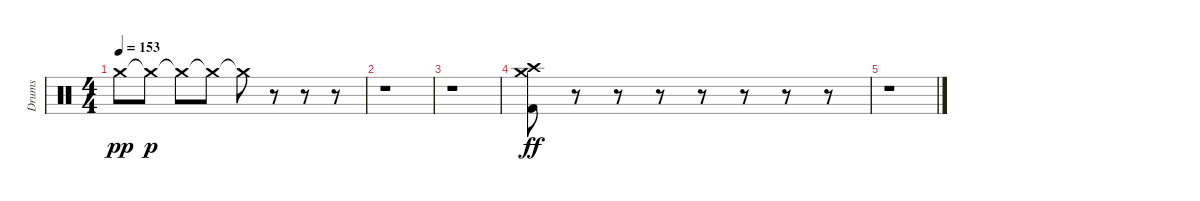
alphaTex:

\track ("Drums" "Drums") {instrument percussion}
\staff {score}
\articulation defaults
\ts (4 4)
\tempo 153
\clef neutral
\ks c "Crash medium (hit)".8{dy pp} "Crash medium (hit)"{t}.8{dy p} "Crash medium (hit)"{t}.8 "Crash medium (hit)"{t}.8 "Crash medium (hit)"{t}.8
r.8 r.8 r.8 |
r.1 |
r.1 |
("Kick (hit) 2" "Crash medium (hit)" "Crash high (hit)").8{dy ff} r.8 r.8 r.8 r.8 r.8 r.8 r.8 |
r.1
